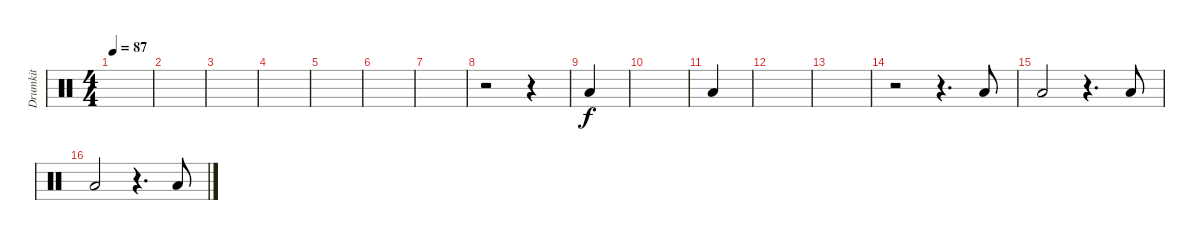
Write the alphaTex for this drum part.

\track ("Drumkit" "Drumkit") {instrument percussion}
\staff {score}
\articulation defaults
\ts (4 4)
\tempo 87
\clef neutral
\ks c
|
|
|
|
|
|
|
r.2 r.4 |
"Low Floor Tom (hit)".4 |
|
"Low Floor Tom (hit)".4 |
|
|
r.2 r.4{d} "Low Floor Tom (hit)".8 |
"Low Floor Tom (hit)".2 r.4{d} "Low Floor Tom (hit)".8 |
"Low Floor Tom (hit)".2 r.4{d} "Low Floor Tom (hit)".8
